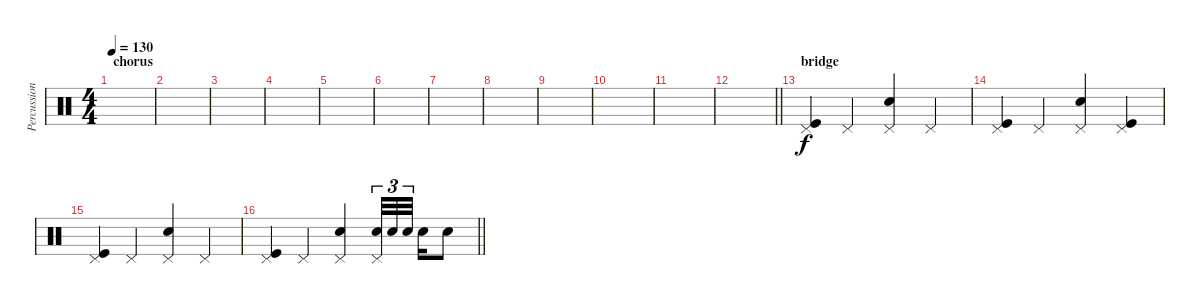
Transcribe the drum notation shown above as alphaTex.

\track ("Percussion" "Percussion") {instrument percussion}
\staff {score}
\articulation defaults
\ts (4 4)
\section ("" "chorus")
\tempo 130
\clef neutral
\ks c
|
|
|
|
|
|
|
|
|
|
|
\barLineRight lightlight
|
\section ("" "bridge")
("Pedal Hi-Hat (hit)" "Kick (hit)").4 "Pedal Hi-Hat (hit)".4 ("Pedal Hi-Hat (hit)" "Electric Snare (hit)").4 "Pedal Hi-Hat (hit)".4 |
("Pedal Hi-Hat (hit)" "Kick (hit)").4 "Pedal Hi-Hat (hit)".4 ("Pedal Hi-Hat (hit)" "Electric Snare (hit)").4 ("Pedal Hi-Hat (hit)" "Kick (hit)").4 |
("Pedal Hi-Hat (hit)" "Kick (hit)").4 "Pedal Hi-Hat (hit)".4 ("Pedal Hi-Hat (hit)" "Electric Snare (hit)").4 "Pedal Hi-Hat (hit)".4 |
\barLineRight lightlight
("Pedal Hi-Hat (hit)" "Kick (hit)").4 "Pedal Hi-Hat (hit)".4 ("Pedal Hi-Hat (hit)" "Electric Snare (hit)").4 ("Pedal Hi-Hat (hit)" "Snare (hit) 2").32{tu (3 2)} "Snare (hit) 2".32{tu (3 2)} "Snare (hit) 2".32{tu (3 2)} "Snare (hit) 2".16 "Snare (hit) 2".8
